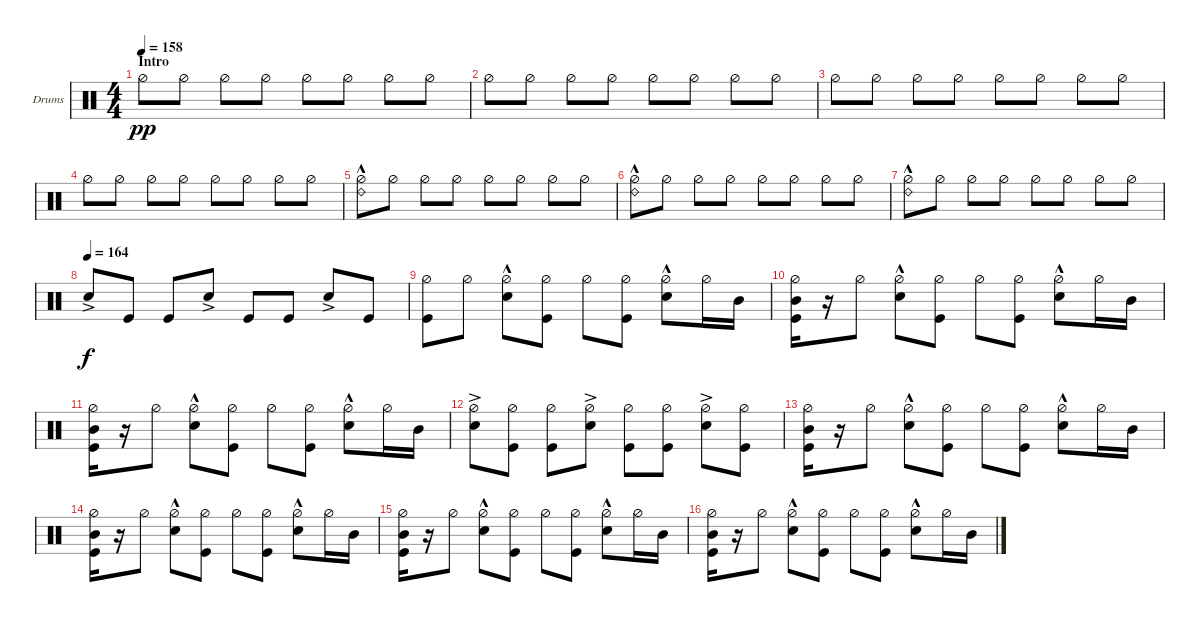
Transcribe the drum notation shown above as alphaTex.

\defaultSystemsLayout 4
\bracketExtendMode groupsimilarinstruments
\firstSystemTrackNameOrientation horizontal
\otherSystemsTrackNameOrientation horizontal
\track ("Drumkit" "Drums") {instrument percussion}
\staff {score}
\articulation defaults
\ts (4 4)
\section ("" "Intro")
\tempo 158
\clef neutral
\scale
0.474178
\ks c "Hi-Hat (half)".8{dy pp} "Hi-Hat (half)".8 "Hi-Hat (half)".8 "Hi-Hat (half)".8 "Hi-Hat (half)".8 "Hi-Hat (half)".8 "Hi-Hat (half)".8 "Hi-Hat (half)".8
|
\scale
0.262911 "Hi-Hat (half)".8 "Hi-Hat (half)".8 "Hi-Hat (half)".8 "Hi-Hat (half)".8 "Hi-Hat (half)".8 "Hi-Hat (half)".8 "Hi-Hat (half)".8 "Hi-Hat (half)".8 |
\scale
0.262911 "Hi-Hat (half)".8 "Hi-Hat (half)".8 "Hi-Hat (half)".8 "Hi-Hat (half)".8 "Hi-Hat (half)".8 "Hi-Hat (half)".8 "Hi-Hat (half)".8 "Hi-Hat (half)".8 |
"Hi-Hat (half)".8 "Hi-Hat (half)".8 "Hi-Hat (half)".8 "Hi-Hat (half)".8 "Hi-Hat (half)".8 "Hi-Hat (half)".8 "Hi-Hat (half)".8 "Hi-Hat (half)".8 |
("Hi-Hat (half)" "Ride (bell) 2"{hac}).8 "Hi-Hat (half)".8 "Hi-Hat (half)".8 "Hi-Hat (half)".8 "Hi-Hat (half)".8 "Hi-Hat (half)".8 "Hi-Hat (half)".8 "Hi-Hat (half)".8 |
("Hi-Hat (half)" "Ride (bell) 2"{hac}).8 "Hi-Hat (half)".8 "Hi-Hat (half)".8 "Hi-Hat (half)".8 "Hi-Hat (half)".8 "Hi-Hat (half)".8 "Hi-Hat (half)".8 "Hi-Hat (half)".8 |
("Hi-Hat (half)" "Ride (bell) 2"{hac}).8 "Hi-Hat (half)".8 "Hi-Hat (half)".8 "Hi-Hat (half)".8 "Hi-Hat (half)".8 "Hi-Hat (half)".8 "Hi-Hat (half)".8 "Hi-Hat (half)".8 |
\tempo (164)
"Snare (hit) 2"{ac}.8{dy f} "Kick (hit)".8 "Kick (hit)".8 "Snare (hit) 2"{ac}.8 "Kick (hit)".8 "Kick (hit)".8 "Snare (hit) 2"{ac}.8 "Kick (hit)".8 |
("Kick (hit)" "Hi-Hat (half)").8 "Hi-Hat (half)".8 ("Snare (hit) 2"{hac} "Hi-Hat (half)").8 ("Kick (hit)" "Hi-Hat (half)").8 "Hi-Hat (half)".8 ("Kick (hit)" "Hi-Hat (half)").8 ("Snare (hit) 2"{hac} "Hi-Hat (half)").8 "Hi-Hat (half)".16 "Mid Tom (hit)".16 |
("Mid Tom (hit)" "Hi-Hat (half)" "Kick (hit)").16 r.16 "Hi-Hat (half)".8 ("Snare (hit) 2"{hac} "Hi-Hat (half)").8 ("Kick (hit)" "Hi-Hat (half)").8 "Hi-Hat (half)".8 ("Kick (hit)" "Hi-Hat (half)").8 ("Snare (hit) 2"{hac} "Hi-Hat (half)").8 "Hi-Hat (half)".16 "Mid Tom (hit)".16 |
("Mid Tom (hit)" "Hi-Hat (half)" "Kick (hit)").16 r.16 "Hi-Hat (half)".8 ("Snare (hit) 2"{hac} "Hi-Hat (half)").8 ("Kick (hit)" "Hi-Hat (half)").8 "Hi-Hat (half)".8 ("Kick (hit)" "Hi-Hat (half)").8 ("Snare (hit) 2"{hac} "Hi-Hat (half)").8 "Hi-Hat (half)".16 "Mid Tom (hit)".16 |
("Snare (hit) 2"{ac} "Hi-Hat (half)").8 ("Kick (hit)" "Hi-Hat (half)").8 ("Kick (hit)" "Hi-Hat (half)").8 ("Snare (hit) 2"{ac} "Hi-Hat (half)").8 ("Kick (hit)" "Hi-Hat (half)").8 ("Kick (hit)" "Hi-Hat (half)").8 ("Snare (hit) 2"{ac} "Hi-Hat (half)").8 ("Kick (hit)" "Hi-Hat (half)").8 |
("Mid Tom (hit)" "Hi-Hat (half)" "Kick (hit)").16 r.16 "Hi-Hat (half)".8 ("Snare (hit) 2"{hac} "Hi-Hat (half)").8 ("Kick (hit)" "Hi-Hat (half)").8 "Hi-Hat (half)".8 ("Kick (hit)" "Hi-Hat (half)").8 ("Snare (hit) 2"{hac} "Hi-Hat (half)").8 "Hi-Hat (half)".16 "Mid Tom (hit)".16 |
("Mid Tom (hit)" "Hi-Hat (half)" "Kick (hit)").16 r.16 "Hi-Hat (half)".8 ("Snare (hit) 2"{hac} "Hi-Hat (half)").8 ("Kick (hit)" "Hi-Hat (half)").8 "Hi-Hat (half)".8 ("Kick (hit)" "Hi-Hat (half)").8 ("Snare (hit) 2"{hac} "Hi-Hat (half)").8 "Hi-Hat (half)".16 "Mid Tom (hit)".16 |
("Mid Tom (hit)" "Hi-Hat (half)" "Kick (hit)").16 r.16 "Hi-Hat (half)".8 ("Snare (hit) 2"{hac} "Hi-Hat (half)").8 ("Kick (hit)" "Hi-Hat (half)").8 "Hi-Hat (half)".8 ("Kick (hit)" "Hi-Hat (half)").8 ("Snare (hit) 2"{hac} "Hi-Hat (half)").8 "Hi-Hat (half)".16 "Mid Tom (hit)".16 |
("Mid Tom (hit)" "Hi-Hat (half)" "Kick (hit)").16 r.16 "Hi-Hat (half)".8 ("Snare (hit) 2"{hac} "Hi-Hat (half)").8 ("Kick (hit)" "Hi-Hat (half)").8 "Hi-Hat (half)".8 ("Kick (hit)" "Hi-Hat (half)").8 ("Snare (hit) 2"{hac} "Hi-Hat (half)").8 "Hi-Hat (half)".16 "Mid Tom (hit)".16
